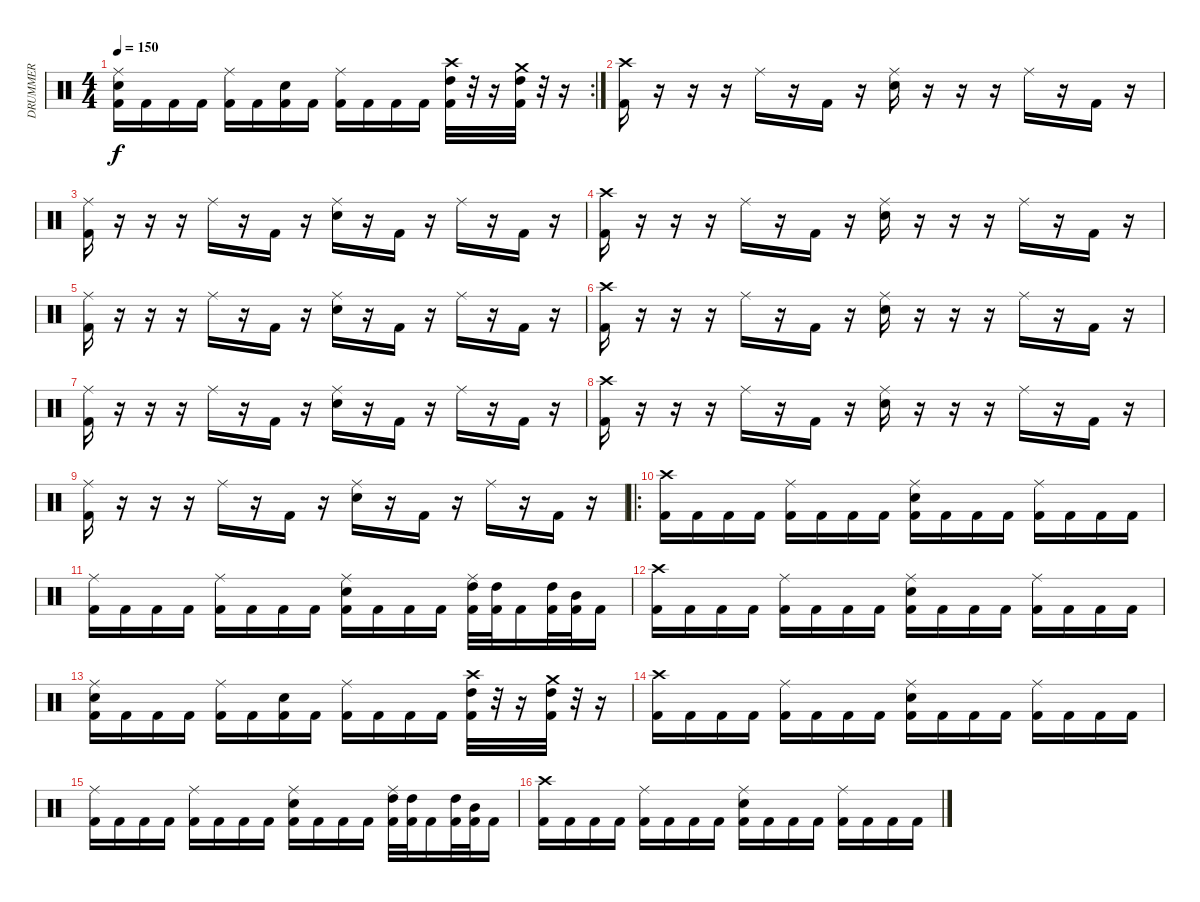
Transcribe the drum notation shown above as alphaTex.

\track ("DRUMMER" "DRUMMER") {instrument percussion}
\staff {score}
\articulation defaults
\rc 2
\ts (4 4)
\tempo 150
\clef neutral
\ks c
("Ride (middle)" "Electric Snare (hit)" "Kick (hit) 2").16{dy f} "Kick (hit) 2".16 "Kick (hit) 2".16 "Kick (hit) 2".16 ("Ride (middle)" "Kick (hit) 2").16 "Kick (hit) 2".16 ("Electric Snare (hit)" "Kick (hit) 2").16 "Kick (hit) 2".16 ("Ride (middle)" "Kick (hit) 2").16 "Kick (hit) 2".16 "Kick (hit) 2".16 "Kick (hit) 2".16 ("Crash high (hit)" "High Tom (hit)" "Kick (hit) 2").32 r.32 r.16 ("Crash medium (hit)" "High Tom (hit)" "Kick (hit) 2").32 r.32 r.16 |
("Crash high (hit)" "Kick (hit) 2").16 r.16 r.16 r.16 "Ride (middle)".16 r.16 "Kick (hit) 2".16 r.16 ("Ride (middle)" "Electric Snare (hit)").16 r.16 r.16 r.16 "Ride (middle)".16 r.16 "Kick (hit) 2".16 r.16 |
("Ride (middle)" "Kick (hit) 2").16 r.16 r.16 r.16 "Ride (middle)".16 r.16 "Kick (hit) 2".16 r.16 ("Ride (middle)" "Electric Snare (hit)").16 r.16 "Kick (hit) 2".16 r.16 "Ride (middle)".16 r.16 "Kick (hit) 2".16 r.16 |
("Crash high (hit)" "Kick (hit) 2").16 r.16 r.16 r.16 "Ride (middle)".16 r.16 "Kick (hit) 2".16 r.16 ("Ride (middle)" "Electric Snare (hit)").16 r.16 r.16 r.16 "Ride (middle)".16 r.16 "Kick (hit) 2".16 r.16 |
("Ride (middle)" "Kick (hit) 2").16 r.16 r.16 r.16 "Ride (middle)".16 r.16 "Kick (hit) 2".16 r.16 ("Ride (middle)" "Electric Snare (hit)").16 r.16 "Kick (hit) 2".16 r.16 "Ride (middle)".16 r.16 "Kick (hit) 2".16 r.16 |
("Crash high (hit)" "Kick (hit) 2").16 r.16 r.16 r.16 "Ride (middle)".16 r.16 "Kick (hit) 2".16 r.16 ("Ride (middle)" "Electric Snare (hit)").16 r.16 r.16 r.16 "Ride (middle)".16 r.16 "Kick (hit) 2".16 r.16 |
("Ride (middle)" "Kick (hit) 2").16 r.16 r.16 r.16 "Ride (middle)".16 r.16 "Kick (hit) 2".16 r.16 ("Ride (middle)" "Electric Snare (hit)").16 r.16 "Kick (hit) 2".16 r.16 "Ride (middle)".16 r.16 "Kick (hit) 2".16 r.16 |
("Crash high (hit)" "Kick (hit) 2").16 r.16 r.16 r.16 "Ride (middle)".16 r.16 "Kick (hit) 2".16 r.16 ("Ride (middle)" "Electric Snare (hit)").16 r.16 r.16 r.16 "Ride (middle)".16 r.16 "Kick (hit) 2".16 r.16 |
("Ride (middle)" "Kick (hit) 2").16 r.16 r.16 r.16 "Ride (middle)".16 r.16 "Kick (hit) 2".16 r.16 ("Ride (middle)" "Electric Snare (hit)").16 r.16 "Kick (hit) 2".16 r.16 "Ride (middle)".16 r.16 "Kick (hit) 2".16 r.16 |
\ro
("Crash high (hit)" "Kick (hit) 2").16 "Kick (hit) 2".16 "Kick (hit) 2".16 "Kick (hit) 2".16 ("Ride (middle)" "Kick (hit) 2").16 "Kick (hit) 2".16 "Kick (hit) 2".16 "Kick (hit) 2".16 ("Ride (middle)" "Electric Snare (hit)" "Kick (hit) 2").16 "Kick (hit) 2".16 "Kick (hit) 2".16 "Kick (hit) 2".16 ("Ride (middle)" "Kick (hit) 2").16 "Kick (hit) 2".16 "Kick (hit) 2".16 "Kick (hit) 2".16 |
("Ride (middle)" "Kick (hit) 2").16 "Kick (hit) 2".16 "Kick (hit) 2".16 "Kick (hit) 2".16 ("Ride (middle)" "Kick (hit) 2").16 "Kick (hit) 2".16 "Kick (hit) 2".16 "Kick (hit) 2".16 ("Ride (middle)" "Electric Snare (hit)" "Kick (hit) 2").16 "Kick (hit) 2".16 "Kick (hit) 2".16 "Kick (hit) 2".16 ("Ride (middle)" "High Tom (hit)" "Kick (hit) 2").32 ("High Tom (hit)" "Kick (hit) 2").32 "Kick (hit) 2".16 ("High Tom (hit)" "Kick (hit) 2").32 ("Mid Tom (hit)" "Kick (hit) 2").32 "Kick (hit) 2".16 |
("Crash high (hit)" "Kick (hit) 2").16 "Kick (hit) 2".16 "Kick (hit) 2".16 "Kick (hit) 2".16 ("Ride (middle)" "Kick (hit) 2").16 "Kick (hit) 2".16 "Kick (hit) 2".16 "Kick (hit) 2".16 ("Ride (middle)" "Electric Snare (hit)" "Kick (hit) 2").16 "Kick (hit) 2".16 "Kick (hit) 2".16 "Kick (hit) 2".16 ("Ride (middle)" "Kick (hit) 2").16 "Kick (hit) 2".16 "Kick (hit) 2".16 "Kick (hit) 2".16 |
("Ride (middle)" "Electric Snare (hit)" "Kick (hit) 2").16 "Kick (hit) 2".16 "Kick (hit) 2".16 "Kick (hit) 2".16 ("Ride (middle)" "Kick (hit) 2").16 "Kick (hit) 2".16 ("Electric Snare (hit)" "Kick (hit) 2").16 "Kick (hit) 2".16 ("Ride (middle)" "Kick (hit) 2").16 "Kick (hit) 2".16 "Kick (hit) 2".16 "Kick (hit) 2".16 ("Crash high (hit)" "High Tom (hit)" "Kick (hit) 2").32 r.32 r.16 ("Crash medium (hit)" "High Tom (hit)" "Kick (hit) 2").32 r.32 r.16 |
("Crash high (hit)" "Kick (hit) 2").16 "Kick (hit) 2".16 "Kick (hit) 2".16 "Kick (hit) 2".16 ("Ride (middle)" "Kick (hit) 2").16 "Kick (hit) 2".16 "Kick (hit) 2".16 "Kick (hit) 2".16 ("Ride (middle)" "Electric Snare (hit)" "Kick (hit) 2").16 "Kick (hit) 2".16 "Kick (hit) 2".16 "Kick (hit) 2".16 ("Ride (middle)" "Kick (hit) 2").16 "Kick (hit) 2".16 "Kick (hit) 2".16 "Kick (hit) 2".16 |
("Ride (middle)" "Kick (hit) 2").16 "Kick (hit) 2".16 "Kick (hit) 2".16 "Kick (hit) 2".16 ("Ride (middle)" "Kick (hit) 2").16 "Kick (hit) 2".16 "Kick (hit) 2".16 "Kick (hit) 2".16 ("Ride (middle)" "Electric Snare (hit)" "Kick (hit) 2").16 "Kick (hit) 2".16 "Kick (hit) 2".16 "Kick (hit) 2".16 ("Ride (middle)" "High Tom (hit)" "Kick (hit) 2").32 ("High Tom (hit)" "Kick (hit) 2").32 "Kick (hit) 2".16 ("High Tom (hit)" "Kick (hit) 2").32 ("Mid Tom (hit)" "Kick (hit) 2").32 "Kick (hit) 2".16 |
("Crash high (hit)" "Kick (hit) 2").16 "Kick (hit) 2".16 "Kick (hit) 2".16 "Kick (hit) 2".16 ("Ride (middle)" "Kick (hit) 2").16 "Kick (hit) 2".16 "Kick (hit) 2".16 "Kick (hit) 2".16 ("Ride (middle)" "Electric Snare (hit)" "Kick (hit) 2").16 "Kick (hit) 2".16 "Kick (hit) 2".16 "Kick (hit) 2".16 ("Ride (middle)" "Kick (hit) 2").16 "Kick (hit) 2".16 "Kick (hit) 2".16 "Kick (hit) 2".16
